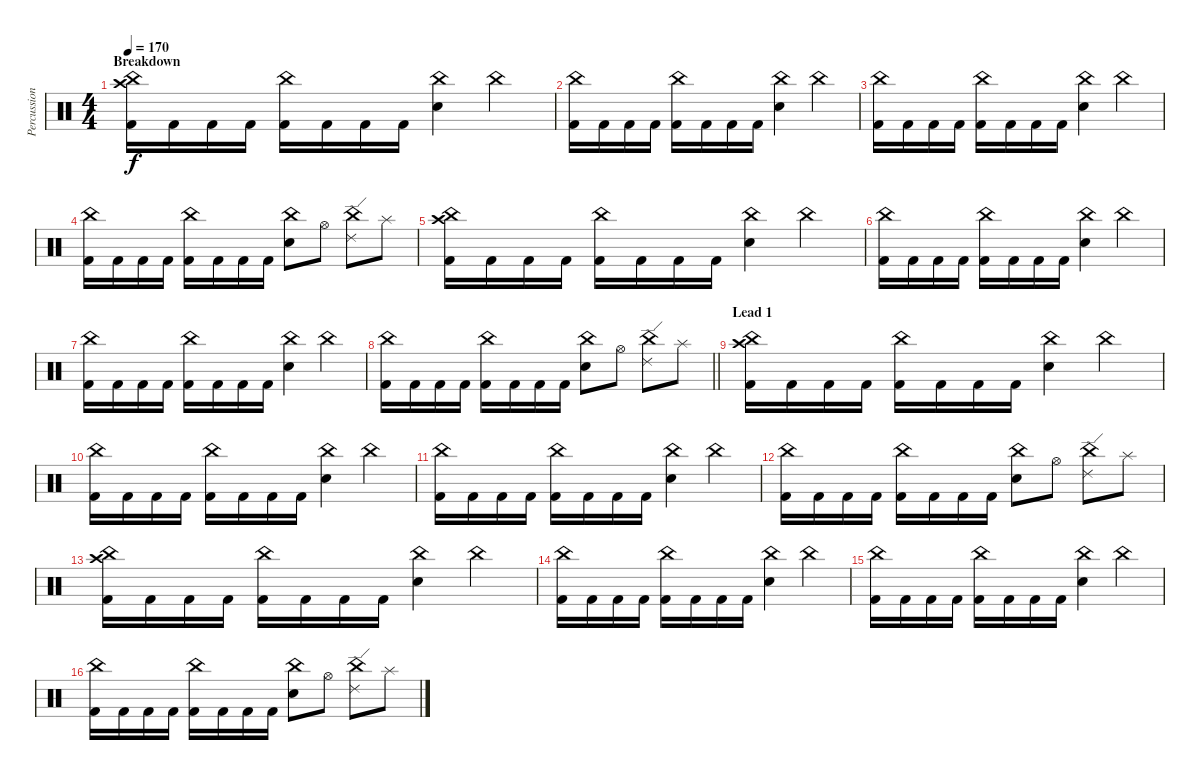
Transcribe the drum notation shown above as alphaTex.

\track ("Percussion" "Percussion") {instrument percussion}
\staff {score}
\articulation defaults
\ts (4 4)
\section ("" "Breakdown")
\tempo 170
\clef neutral
\ks c
("China (hit)" "Crash high (hit)" "Kick (hit) 2").16{dy f} "Kick (hit) 2".16 "Kick (hit) 2".16 "Kick (hit) 2".16 ("China (hit)" "Kick (hit) 2").16 "Kick (hit) 2".16 "Kick (hit) 2".16 "Kick (hit) 2".16 ("China (hit)" "Electric Snare (hit)").4 "China (hit)".4 |
("China (hit)" "Kick (hit) 2").16 "Kick (hit) 2".16 "Kick (hit) 2".16 "Kick (hit) 2".16 ("China (hit)" "Kick (hit) 2").16 "Kick (hit) 2".16 "Kick (hit) 2".16 "Kick (hit) 2".16 ("China (hit)" "Electric Snare (hit)").4 "China (hit)".4 |
("China (hit)" "Kick (hit) 2").16 "Kick (hit) 2".16 "Kick (hit) 2".16 "Kick (hit) 2".16 ("China (hit)" "Kick (hit) 2").16 "Kick (hit) 2".16 "Kick (hit) 2".16 "Kick (hit) 2".16 ("China (hit)" "Electric Snare (hit)").4 "China (hit)".4 |
("China (hit)" "Kick (hit) 2").16 "Kick (hit) 2".16 "Kick (hit) 2".16 "Kick (hit) 2".16 ("China (hit)" "Kick (hit) 2").16 "Kick (hit) 2".16 "Kick (hit) 2".16 "Kick (hit) 2".16 ("China (hit)" "Electric Snare (hit)").8 "Hi-Hat (open)".8 ("China (hit)" "Ride (edge) 2").8 "Splash (hit)".8 |
("China (hit)" "Crash high (hit)" "Kick (hit) 2").16 "Kick (hit) 2".16 "Kick (hit) 2".16 "Kick (hit) 2".16 ("China (hit)" "Kick (hit) 2").16 "Kick (hit) 2".16 "Kick (hit) 2".16 "Kick (hit) 2".16 ("China (hit)" "Electric Snare (hit)").4 "China (hit)".4 |
("China (hit)" "Kick (hit) 2").16 "Kick (hit) 2".16 "Kick (hit) 2".16 "Kick (hit) 2".16 ("China (hit)" "Kick (hit) 2").16 "Kick (hit) 2".16 "Kick (hit) 2".16 "Kick (hit) 2".16 ("China (hit)" "Electric Snare (hit)").4 "China (hit)".4 |
("China (hit)" "Kick (hit) 2").16 "Kick (hit) 2".16 "Kick (hit) 2".16 "Kick (hit) 2".16 ("China (hit)" "Kick (hit) 2").16 "Kick (hit) 2".16 "Kick (hit) 2".16 "Kick (hit) 2".16 ("China (hit)" "Electric Snare (hit)").4 "China (hit)".4 |
\barLineRight lightlight
("China (hit)" "Kick (hit) 2").16 "Kick (hit) 2".16 "Kick (hit) 2".16 "Kick (hit) 2".16 ("China (hit)" "Kick (hit) 2").16 "Kick (hit) 2".16 "Kick (hit) 2".16 "Kick (hit) 2".16 ("China (hit)" "Electric Snare (hit)").8 "Hi-Hat (open)".8 ("China (hit)" "Ride (edge) 2").8 "Splash (hit)".8 |
\section ("" "Lead 1")
("China (hit)" "Crash high (hit)" "Kick (hit) 2").16 "Kick (hit) 2".16 "Kick (hit) 2".16 "Kick (hit) 2".16 ("China (hit)" "Kick (hit) 2").16 "Kick (hit) 2".16 "Kick (hit) 2".16 "Kick (hit) 2".16 ("China (hit)" "Electric Snare (hit)").4 "China (hit)".4 |
("China (hit)" "Kick (hit) 2").16 "Kick (hit) 2".16 "Kick (hit) 2".16 "Kick (hit) 2".16 ("China (hit)" "Kick (hit) 2").16 "Kick (hit) 2".16 "Kick (hit) 2".16 "Kick (hit) 2".16 ("China (hit)" "Electric Snare (hit)").4 "China (hit)".4 |
("China (hit)" "Kick (hit) 2").16 "Kick (hit) 2".16 "Kick (hit) 2".16 "Kick (hit) 2".16 ("China (hit)" "Kick (hit) 2").16 "Kick (hit) 2".16 "Kick (hit) 2".16 "Kick (hit) 2".16 ("China (hit)" "Electric Snare (hit)").4 "China (hit)".4 |
("China (hit)" "Kick (hit) 2").16 "Kick (hit) 2".16 "Kick (hit) 2".16 "Kick (hit) 2".16 ("China (hit)" "Kick (hit) 2").16 "Kick (hit) 2".16 "Kick (hit) 2".16 "Kick (hit) 2".16 ("China (hit)" "Electric Snare (hit)").8 "Hi-Hat (open)".8 ("China (hit)" "Ride (edge) 2").8 "Splash (hit)".8 |
("China (hit)" "Crash high (hit)" "Kick (hit) 2").16 "Kick (hit) 2".16 "Kick (hit) 2".16 "Kick (hit) 2".16 ("China (hit)" "Kick (hit) 2").16 "Kick (hit) 2".16 "Kick (hit) 2".16 "Kick (hit) 2".16 ("China (hit)" "Electric Snare (hit)").4 "China (hit)".4 |
("China (hit)" "Kick (hit) 2").16 "Kick (hit) 2".16 "Kick (hit) 2".16 "Kick (hit) 2".16 ("China (hit)" "Kick (hit) 2").16 "Kick (hit) 2".16 "Kick (hit) 2".16 "Kick (hit) 2".16 ("China (hit)" "Electric Snare (hit)").4 "China (hit)".4 |
("China (hit)" "Kick (hit) 2").16 "Kick (hit) 2".16 "Kick (hit) 2".16 "Kick (hit) 2".16 ("China (hit)" "Kick (hit) 2").16 "Kick (hit) 2".16 "Kick (hit) 2".16 "Kick (hit) 2".16 ("China (hit)" "Electric Snare (hit)").4 "China (hit)".4 |
("China (hit)" "Kick (hit) 2").16 "Kick (hit) 2".16 "Kick (hit) 2".16 "Kick (hit) 2".16 ("China (hit)" "Kick (hit) 2").16 "Kick (hit) 2".16 "Kick (hit) 2".16 "Kick (hit) 2".16 ("China (hit)" "Electric Snare (hit)").8 "Hi-Hat (open)".8 ("China (hit)" "Ride (edge) 2").8 "Splash (hit)".8
